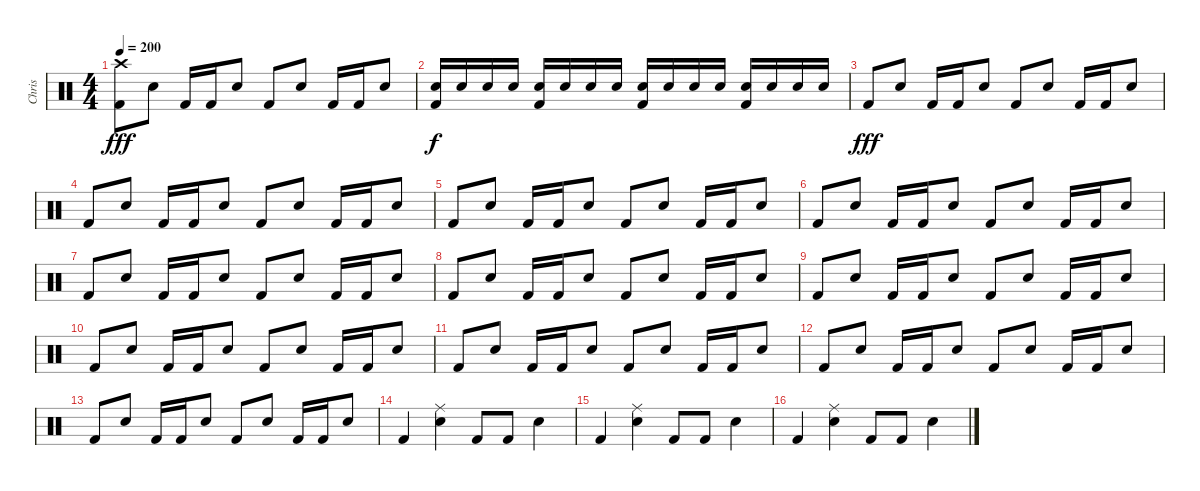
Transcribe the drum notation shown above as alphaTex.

\track ("Chris" "Chris") {instrument percussion}
\staff {score}
\articulation defaults
\ts (4 4)
\tempo 200
\clef neutral
\ks c
("Kick (hit) 2" "Crash high (hit)").8{dy fff} "Electric Snare (hit)".8 "Kick (hit) 2".16 "Kick (hit) 2".16 "Electric Snare (hit)".8 "Kick (hit) 2".8 "Electric Snare (hit)".8 "Kick (hit) 2".16 "Kick (hit) 2".16 "Electric Snare (hit)".8 |
("Electric Snare (hit)" "Kick (hit) 2").16{dy f} "Electric Snare (hit)".16 "Electric Snare (hit)".16 "Electric Snare (hit)".16 ("Electric Snare (hit)" "Kick (hit) 2").16 "Electric Snare (hit)".16 "Electric Snare (hit)".16 "Electric Snare (hit)".16 ("Electric Snare (hit)" "Kick (hit) 2").16 "Electric Snare (hit)".16 "Electric Snare (hit)".16 "Electric Snare (hit)".16 ("Electric Snare (hit)" "Kick (hit) 2").16 "Electric Snare (hit)".16 "Electric Snare (hit)".16 "Electric Snare (hit)".16 |
"Kick (hit) 2".8{dy fff} "Electric Snare (hit)".8 "Kick (hit) 2".16 "Kick (hit) 2".16 "Electric Snare (hit)".8 "Kick (hit) 2".8 "Electric Snare (hit)".8 "Kick (hit) 2".16 "Kick (hit) 2".16 "Electric Snare (hit)".8 |
"Kick (hit) 2".8 "Electric Snare (hit)".8 "Kick (hit) 2".16 "Kick (hit) 2".16 "Electric Snare (hit)".8 "Kick (hit) 2".8 "Electric Snare (hit)".8 "Kick (hit) 2".16 "Kick (hit) 2".16 "Electric Snare (hit)".8 |
"Kick (hit) 2".8 "Electric Snare (hit)".8 "Kick (hit) 2".16 "Kick (hit) 2".16 "Electric Snare (hit)".8 "Kick (hit) 2".8 "Electric Snare (hit)".8 "Kick (hit) 2".16 "Kick (hit) 2".16 "Electric Snare (hit)".8 |
"Kick (hit) 2".8 "Electric Snare (hit)".8 "Kick (hit) 2".16 "Kick (hit) 2".16 "Electric Snare (hit)".8 "Kick (hit) 2".8 "Electric Snare (hit)".8 "Kick (hit) 2".16 "Kick (hit) 2".16 "Electric Snare (hit)".8 |
"Kick (hit) 2".8 "Electric Snare (hit)".8 "Kick (hit) 2".16 "Kick (hit) 2".16 "Electric Snare (hit)".8 "Kick (hit) 2".8 "Electric Snare (hit)".8 "Kick (hit) 2".16 "Kick (hit) 2".16 "Electric Snare (hit)".8 |
"Kick (hit) 2".8 "Electric Snare (hit)".8 "Kick (hit) 2".16 "Kick (hit) 2".16 "Electric Snare (hit)".8 "Kick (hit) 2".8 "Electric Snare (hit)".8 "Kick (hit) 2".16 "Kick (hit) 2".16 "Electric Snare (hit)".8 |
"Kick (hit) 2".8 "Electric Snare (hit)".8 "Kick (hit) 2".16 "Kick (hit) 2".16 "Electric Snare (hit)".8 "Kick (hit) 2".8 "Electric Snare (hit)".8 "Kick (hit) 2".16 "Kick (hit) 2".16 "Electric Snare (hit)".8 |
"Kick (hit) 2".8 "Electric Snare (hit)".8 "Kick (hit) 2".16 "Kick (hit) 2".16 "Electric Snare (hit)".8 "Kick (hit) 2".8 "Electric Snare (hit)".8 "Kick (hit) 2".16 "Kick (hit) 2".16 "Electric Snare (hit)".8 |
"Kick (hit) 2".8 "Electric Snare (hit)".8 "Kick (hit) 2".16 "Kick (hit) 2".16 "Electric Snare (hit)".8 "Kick (hit) 2".8 "Electric Snare (hit)".8 "Kick (hit) 2".16 "Kick (hit) 2".16 "Electric Snare (hit)".8 |
"Kick (hit) 2".8 "Electric Snare (hit)".8 "Kick (hit) 2".16 "Kick (hit) 2".16 "Electric Snare (hit)".8 "Kick (hit) 2".8 "Electric Snare (hit)".8 "Kick (hit) 2".16 "Kick (hit) 2".16 "Electric Snare (hit)".8 |
"Kick (hit) 2".8 "Electric Snare (hit)".8 "Kick (hit) 2".16 "Kick (hit) 2".16 "Electric Snare (hit)".8 "Kick (hit) 2".8 "Electric Snare (hit)".8 "Kick (hit) 2".16 "Kick (hit) 2".16 "Electric Snare (hit)".8 |
"Kick (hit) 2".4 ("Ride (middle)" "Electric Snare (hit)").4 "Kick (hit) 2".8 "Kick (hit) 2".8 "Electric Snare (hit)".4 |
"Kick (hit) 2".4 ("Ride (middle)" "Electric Snare (hit)").4 "Kick (hit) 2".8 "Kick (hit) 2".8 "Electric Snare (hit)".4 |
"Kick (hit) 2".4 ("Ride (middle)" "Electric Snare (hit)").4 "Kick (hit) 2".8 "Kick (hit) 2".8 "Electric Snare (hit)".4
